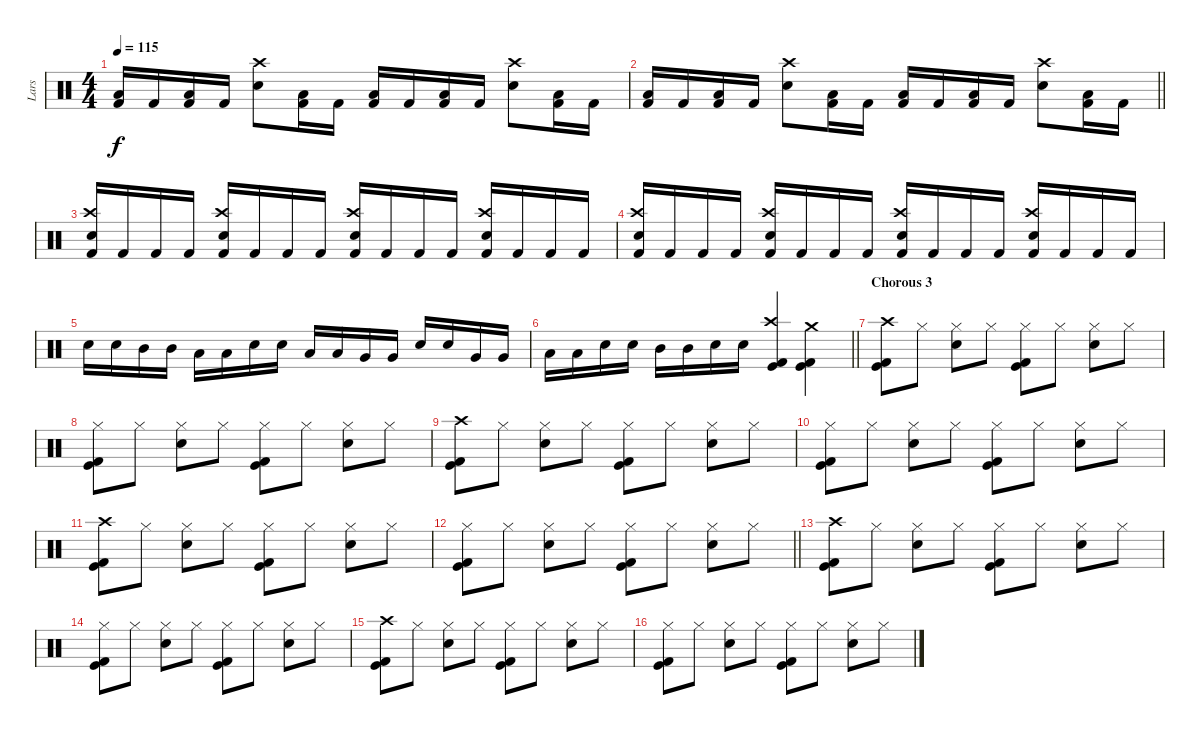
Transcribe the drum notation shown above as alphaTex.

\track ("Lars" "Lars") {instrument percussion}
\staff {score}
\articulation defaults
\ts (4 4)
\tempo 115
\clef neutral
\ks c
("Low Floor Tom (hit)" "Kick (hit) 2").16{dy f} "Kick (hit) 2".16 ("Low Floor Tom (hit)" "Kick (hit) 2").16 "Kick (hit) 2".16 ("Crash high (hit)" "Electric Snare (hit)").8 ("Low Floor Tom (hit)" "Kick (hit) 2").16 "Kick (hit) 2".16 ("Low Floor Tom (hit)" "Kick (hit) 2").16 "Kick (hit) 2".16 ("Low Floor Tom (hit)" "Kick (hit) 2").16 "Kick (hit) 2".16 ("Crash high (hit)" "Electric Snare (hit)").8 ("Low Floor Tom (hit)" "Kick (hit) 2").16 "Kick (hit) 2".16 |
\barLineRight lightlight
("Low Floor Tom (hit)" "Kick (hit) 2").16 "Kick (hit) 2".16 ("Low Floor Tom (hit)" "Kick (hit) 2").16 "Kick (hit) 2".16 ("Crash high (hit)" "Electric Snare (hit)").8 ("Low Floor Tom (hit)" "Kick (hit) 2").16 "Kick (hit) 2".16 ("Low Floor Tom (hit)" "Kick (hit) 2").16 "Kick (hit) 2".16 ("Low Floor Tom (hit)" "Kick (hit) 2").16 "Kick (hit) 2".16 ("Crash high (hit)" "Electric Snare (hit)").8 ("Low Floor Tom (hit)" "Kick (hit) 2").16 "Kick (hit) 2".16 |
\section ("" "")
("Crash high (hit)" "Electric Snare (hit)" "Kick (hit) 2").16 "Kick (hit) 2".16 "Kick (hit) 2".16 "Kick (hit) 2".16 ("Crash high (hit)" "Electric Snare (hit)" "Kick (hit) 2").16 "Kick (hit) 2".16 "Kick (hit) 2".16 "Kick (hit) 2".16 ("Crash high (hit)" "Electric Snare (hit)" "Kick (hit) 2").16 "Kick (hit) 2".16 "Kick (hit) 2".16 "Kick (hit) 2".16 ("Crash high (hit)" "Electric Snare (hit)" "Kick (hit) 2").16 "Kick (hit) 2".16 "Kick (hit) 2".16 "Kick (hit) 2".16 |
("Crash high (hit)" "Electric Snare (hit)" "Kick (hit) 2").16 "Kick (hit) 2".16 "Kick (hit) 2".16 "Kick (hit) 2".16 ("Crash high (hit)" "Electric Snare (hit)" "Kick (hit) 2").16 "Kick (hit) 2".16 "Kick (hit) 2".16 "Kick (hit) 2".16 ("Crash high (hit)" "Electric Snare (hit)" "Kick (hit) 2").16 "Kick (hit) 2".16 "Kick (hit) 2".16 "Kick (hit) 2".16 ("Crash high (hit)" "Electric Snare (hit)" "Kick (hit) 2").16 "Kick (hit) 2".16 "Kick (hit) 2".16 "Kick (hit) 2".16 |
"Electric Snare (hit)".16 "Electric Snare (hit)".16 "Mid Tom (hit)".16 "Mid Tom (hit)".16 "Low Tom (hit)".16 "Low Tom (hit)".16 "Electric Snare (hit)".16 "Electric Snare (hit)".16 "Low Tom (hit)".16 "Low Tom (hit)".16 "Very Low Tom (hit)".16 "Very Low Tom (hit)".16 "Electric Snare (hit)".16 "Electric Snare (hit)".16 "Very Low Tom (hit)".16 "Very Low Tom (hit)".16 |
\barLineRight lightlight "Low Floor Tom (hit)".16 "Low Floor Tom (hit)".16 "Electric Snare (hit)".16 "Electric Snare (hit)".16 "Mid Tom (hit)".16 "Mid Tom (hit)".16 "Electric Snare (hit)".16 "Electric Snare (hit)".16
("Crash high (hit)" "Kick (hit)" "Kick (hit) 2").4 ("Crash medium (hit)" "Kick (hit)" "Kick (hit) 2").4 |
\section ("" "Chorous 3")
("Crash high (hit)" "Kick (hit)" "Kick (hit) 2").8 "Hi-Hat (closed)".8 ("Hi-Hat (closed)" "Electric Snare (hit)").8 "Hi-Hat (closed)".8 ("Hi-Hat (closed)" "Kick (hit)" "Kick (hit) 2").8 "Hi-Hat (closed)".8 ("Hi-Hat (closed)" "Electric Snare (hit)").8 "Hi-Hat (closed)".8 |
("Hi-Hat (closed)" "Kick (hit)" "Kick (hit) 2").8 "Hi-Hat (closed)".8 ("Hi-Hat (closed)" "Electric Snare (hit)").8 "Hi-Hat (closed)".8 ("Hi-Hat (closed)" "Kick (hit)" "Kick (hit) 2").8 "Hi-Hat (closed)".8 ("Hi-Hat (closed)" "Electric Snare (hit)").8 "Hi-Hat (closed)".8 |
("Crash high (hit)" "Kick (hit)" "Kick (hit) 2").8 "Hi-Hat (closed)".8 ("Hi-Hat (closed)" "Electric Snare (hit)").8 "Hi-Hat (closed)".8 ("Hi-Hat (closed)" "Kick (hit)" "Kick (hit) 2").8 "Hi-Hat (closed)".8 ("Hi-Hat (closed)" "Electric Snare (hit)").8 "Hi-Hat (closed)".8 |
("Hi-Hat (closed)" "Kick (hit)" "Kick (hit) 2").8 "Hi-Hat (closed)".8 ("Hi-Hat (closed)" "Electric Snare (hit)").8 "Hi-Hat (closed)".8 ("Hi-Hat (closed)" "Kick (hit)" "Kick (hit) 2").8 "Hi-Hat (closed)".8 ("Hi-Hat (closed)" "Electric Snare (hit)").8 "Hi-Hat (closed)".8 |
("Crash high (hit)" "Kick (hit)" "Kick (hit) 2").8 "Hi-Hat (closed)".8 ("Hi-Hat (closed)" "Electric Snare (hit)").8 "Hi-Hat (closed)".8 ("Hi-Hat (closed)" "Kick (hit)" "Kick (hit) 2").8 "Hi-Hat (closed)".8 ("Hi-Hat (closed)" "Electric Snare (hit)").8 "Hi-Hat (closed)".8 |
\barLineRight lightlight
("Hi-Hat (closed)" "Kick (hit)" "Kick (hit) 2").8 "Hi-Hat (closed)".8 ("Hi-Hat (closed)" "Electric Snare (hit)").8 "Hi-Hat (closed)".8 ("Hi-Hat (closed)" "Kick (hit)" "Kick (hit) 2").8 "Hi-Hat (closed)".8 ("Hi-Hat (closed)" "Electric Snare (hit)").8 "Hi-Hat (closed)".8 |
\section ("" "")
("Crash high (hit)" "Kick (hit)" "Kick (hit) 2").8 "Hi-Hat (closed)".8 ("Hi-Hat (closed)" "Electric Snare (hit)").8 "Hi-Hat (closed)".8 ("Hi-Hat (closed)" "Kick (hit)" "Kick (hit) 2").8 "Hi-Hat (closed)".8 ("Hi-Hat (closed)" "Electric Snare (hit)").8 "Hi-Hat (closed)".8 |
("Hi-Hat (closed)" "Kick (hit)" "Kick (hit) 2").8 "Hi-Hat (closed)".8 ("Hi-Hat (closed)" "Electric Snare (hit)").8 "Hi-Hat (closed)".8 ("Hi-Hat (closed)" "Kick (hit)" "Kick (hit) 2").8 "Hi-Hat (closed)".8 ("Hi-Hat (closed)" "Electric Snare (hit)").8 "Hi-Hat (closed)".8 |
("Crash high (hit)" "Kick (hit)" "Kick (hit) 2").8 "Hi-Hat (closed)".8 ("Hi-Hat (closed)" "Electric Snare (hit)").8 "Hi-Hat (closed)".8 ("Hi-Hat (closed)" "Kick (hit)" "Kick (hit) 2").8 "Hi-Hat (closed)".8 ("Hi-Hat (closed)" "Electric Snare (hit)").8 "Hi-Hat (closed)".8 |
("Hi-Hat (closed)" "Kick (hit)" "Kick (hit) 2").8 "Hi-Hat (closed)".8 ("Hi-Hat (closed)" "Electric Snare (hit)").8 "Hi-Hat (closed)".8 ("Hi-Hat (closed)" "Kick (hit)" "Kick (hit) 2").8 "Hi-Hat (closed)".8 ("Hi-Hat (closed)" "Electric Snare (hit)").8 "Hi-Hat (closed)".8
